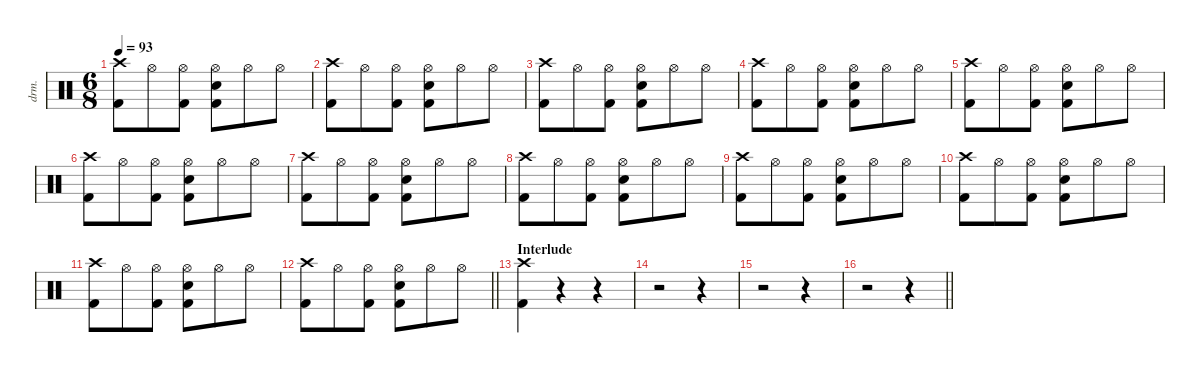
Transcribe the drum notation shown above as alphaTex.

\defaultSystemsLayout 4
\hideDynamics
\bracketExtendMode nobrackets
\otherSystemsTrackNameOrientation horizontal
\track ("Drums" "drm.") {instrument percussion}
\staff {score}
\articulation defaults
\ts (6 8)
\tempo 93
\clef neutral
\ks c
("Crash high (hit)" "Kick (hit) 2").8{dy f beam Down} "Hi-Hat (open)".8{beam Down} ("Hi-Hat (open)" "Kick (hit) 2").8{beam Down} ("Hi-Hat (open)" "Snare (hit) 2" "Kick (hit) 2").8{beam Down} "Hi-Hat (open)".8{beam Down} "Hi-Hat (open)".8{beam Down} |
("Crash high (hit)" "Kick (hit) 2").8{beam Down} "Hi-Hat (open)".8{beam Down} ("Hi-Hat (open)" "Kick (hit) 2").8{beam Down} ("Hi-Hat (open)" "Snare (hit) 2" "Kick (hit) 2").8{beam Down} "Hi-Hat (open)".8{beam Down} "Hi-Hat (open)".8{beam Down} |
("Crash high (hit)" "Kick (hit) 2").8{beam Down} "Hi-Hat (open)".8{beam Down} ("Hi-Hat (open)" "Kick (hit) 2").8{beam Down} ("Hi-Hat (open)" "Snare (hit) 2" "Kick (hit) 2").8{beam Down} "Hi-Hat (open)".8{beam Down} "Hi-Hat (open)".8{beam Down} |
("Crash high (hit)" "Kick (hit) 2").8{beam Down} "Hi-Hat (open)".8{beam Down} ("Hi-Hat (open)" "Kick (hit) 2").8{beam Down} ("Hi-Hat (open)" "Snare (hit) 2" "Kick (hit) 2").8{beam Down} "Hi-Hat (open)".8{beam Down} "Hi-Hat (open)".8{beam Down} |
("Crash high (hit)" "Kick (hit) 2").8{beam Down} "Hi-Hat (open)".8{beam Down} ("Hi-Hat (open)" "Kick (hit) 2").8{beam Down} ("Hi-Hat (open)" "Snare (hit) 2" "Kick (hit) 2").8{beam Down} "Hi-Hat (open)".8{beam Down} "Hi-Hat (open)".8{beam Down} |
("Crash high (hit)" "Kick (hit) 2").8{beam Down} "Hi-Hat (open)".8{beam Down} ("Hi-Hat (open)" "Kick (hit) 2").8{beam Down} ("Hi-Hat (open)" "Snare (hit) 2" "Kick (hit) 2").8{beam Down} "Hi-Hat (open)".8{beam Down} "Hi-Hat (open)".8{beam Down} |
("Crash high (hit)" "Kick (hit) 2").8{beam Down} "Hi-Hat (open)".8{beam Down} ("Hi-Hat (open)" "Kick (hit) 2").8{beam Down} ("Hi-Hat (open)" "Snare (hit) 2" "Kick (hit) 2").8{beam Down} "Hi-Hat (open)".8{beam Down} "Hi-Hat (open)".8{beam Down} |
("Crash high (hit)" "Kick (hit) 2").8{beam Down} "Hi-Hat (open)".8{beam Down} ("Hi-Hat (open)" "Kick (hit) 2").8{beam Down} ("Hi-Hat (open)" "Snare (hit) 2" "Kick (hit) 2").8{beam Down} "Hi-Hat (open)".8{beam Down} "Hi-Hat (open)".8{beam Down} |
("Crash high (hit)" "Kick (hit) 2").8{beam Down} "Hi-Hat (open)".8{beam Down} ("Hi-Hat (open)" "Kick (hit) 2").8{beam Down} ("Hi-Hat (open)" "Snare (hit) 2" "Kick (hit) 2").8{beam Down} "Hi-Hat (open)".8{beam Down} "Hi-Hat (open)".8{beam Down} |
("Crash high (hit)" "Kick (hit) 2").8{beam Down} "Hi-Hat (open)".8{beam Down} ("Hi-Hat (open)" "Kick (hit) 2").8{beam Down} ("Hi-Hat (open)" "Snare (hit) 2" "Kick (hit) 2").8{beam Down} "Hi-Hat (open)".8{beam Down} "Hi-Hat (open)".8{beam Down} |
("Crash high (hit)" "Kick (hit) 2").8{beam Down} "Hi-Hat (open)".8{beam Down} ("Hi-Hat (open)" "Kick (hit) 2").8{beam Down} ("Hi-Hat (open)" "Snare (hit) 2" "Kick (hit) 2").8{beam Down} "Hi-Hat (open)".8{beam Down} "Hi-Hat (open)".8{beam Down} |
\barLineRight lightlight
("Crash high (hit)" "Kick (hit) 2").8{beam Down} "Hi-Hat (open)".8{beam Down} ("Hi-Hat (open)" "Kick (hit) 2").8{beam Down} ("Hi-Hat (open)" "Snare (hit) 2" "Kick (hit) 2").8{beam Down} "Hi-Hat (open)".8{beam Down} "Hi-Hat (open)".8{beam Down} |
\section ("" "Interlude")
("Crash high (hit)" "Kick (hit) 2").4{beam Down} r.4{beam Down} r.4{beam Down} |
r.2{beam Down} r.4{beam Down} |
r.2{beam Down} r.4{beam Down} |
\barLineRight lightlight
r.2{beam Down} r.4{beam Down}
